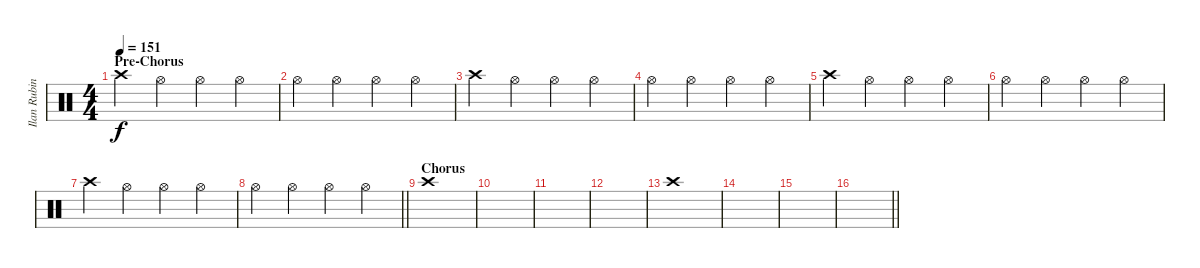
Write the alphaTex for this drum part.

\track ("Ilan Rubin [Drums]" "Ilan Rubin") {instrument percussion}
\staff {score}
\articulation defaults
\ts (4 4)
\section ("" "Pre-Chorus")
\tempo 151
\clef neutral
\ks c "Crash high (hit)".4{dy f} "Hi-Hat (open)".4 "Hi-Hat (open)".4 "Hi-Hat (open)".4
|
"Hi-Hat (open)".4 "Hi-Hat (open)".4 "Hi-Hat (open)".4 "Hi-Hat (open)".4 |
"Crash high (hit)".4 "Hi-Hat (open)".4 "Hi-Hat (open)".4 "Hi-Hat (open)".4 |
"Hi-Hat (open)".4 "Hi-Hat (open)".4 "Hi-Hat (open)".4 "Hi-Hat (open)".4 |
"Crash high (hit)".4 "Hi-Hat (open)".4 "Hi-Hat (open)".4 "Hi-Hat (open)".4 |
"Hi-Hat (open)".4 "Hi-Hat (open)".4 "Hi-Hat (open)".4 "Hi-Hat (open)".4 |
"Crash high (hit)".4 "Hi-Hat (open)".4 "Hi-Hat (open)".4 "Hi-Hat (open)".4 |
\barLineRight lightlight "Hi-Hat (open)".4 "Hi-Hat (open)".4 "Hi-Hat (open)".4 "Hi-Hat (open)".4
|
\section ("" "Chorus")
"Crash high (hit)".1 |
|
|
|
"Crash high (hit)".1 |
|
|
\barLineRight lightlight
